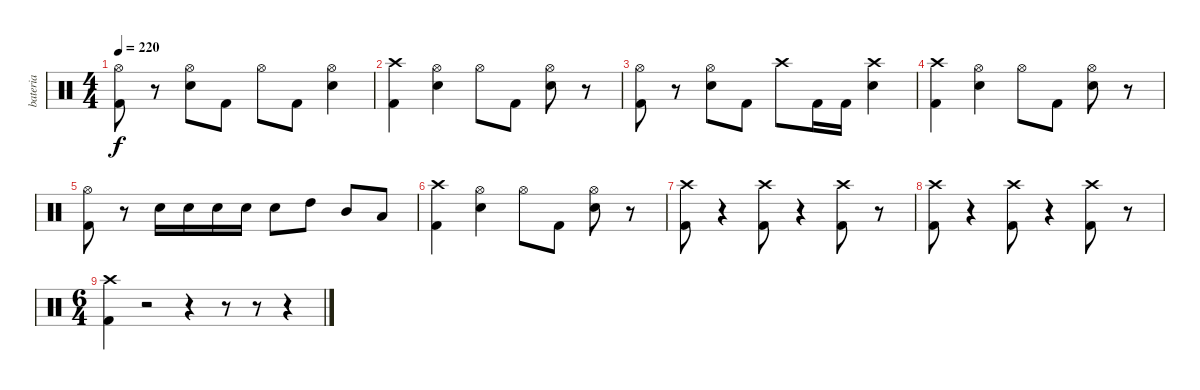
\track ("bateria" "bateria") {instrument percussion}
\staff {score}
\articulation defaults
\ts (4 4)
\tempo 220
\clef neutral
\ks c
("Hi-Hat (open)" "Kick (hit) 2").8{dy f} r.8 ("Hi-Hat (open)" "Snare (hit) 2").8 "Kick (hit) 2".8 "Hi-Hat (open)".8 "Kick (hit) 2".8 ("Hi-Hat (open)" "Snare (hit) 2").4 |
("Crash high (hit)" "Kick (hit) 2").4 ("Hi-Hat (open)" "Snare (hit) 2").4 "Hi-Hat (open)".8 "Kick (hit) 2".8 ("Hi-Hat (open)" "Snare (hit) 2").8 r.8 |
("Hi-Hat (open)" "Kick (hit) 2").8 r.8 ("Hi-Hat (open)" "Snare (hit) 2").8 "Kick (hit) 2".8 "Crash high (hit)".8 "Kick (hit) 2".16 "Kick (hit) 2".16 ("Crash high (hit)" "Snare (hit) 2").4 |
("Crash high (hit)" "Kick (hit) 2").4 ("Hi-Hat (open)" "Snare (hit) 2").4 "Hi-Hat (open)".8 "Kick (hit) 2".8 ("Hi-Hat (open)" "Snare (hit) 2").8 r.8 |
("Hi-Hat (open)" "Kick (hit) 2").8 r.8 "Snare (hit) 2".16 "Snare (hit) 2".16 "Snare (hit) 2".16 "Snare (hit) 2".16 "Snare (hit) 2".8 "High Tom (hit)".8 "Mid Tom (hit)".8 "Low Tom (hit)".8 |
("Crash high (hit)" "Kick (hit) 2").4 ("Hi-Hat (open)" "Snare (hit) 2").4 "Hi-Hat (open)".8 "Kick (hit) 2".8 ("Hi-Hat (open)" "Snare (hit) 2").8 r.8 |
("Crash high (hit)" "Kick (hit) 2").8 r.4 ("Crash high (hit)" "Kick (hit) 2").8 r.4 ("Crash high (hit)" "Kick (hit) 2").8 r.8 |
("Crash high (hit)" "Kick (hit) 2").8 r.4 ("Crash high (hit)" "Kick (hit) 2").8 r.4 ("Crash high (hit)" "Kick (hit) 2").8 r.8 |
\ts (6 4)
("Crash high (hit)" "Kick (hit) 2").4 r.2 r.4 r.8 r.8 r.4
